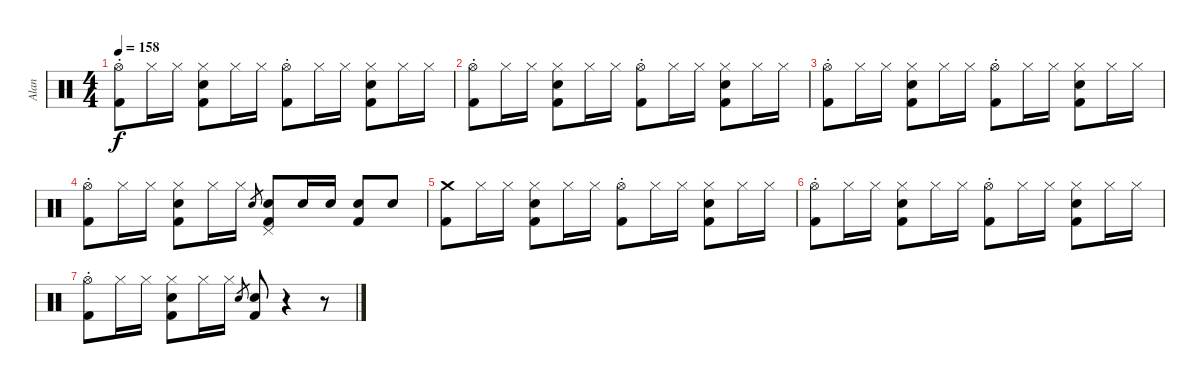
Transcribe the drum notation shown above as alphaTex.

\track ("Alan" "Alan") {instrument percussion}
\staff {score}
\articulation defaults
\ts (4 4)
\tempo 158
\clef neutral
\ks c
("Hi-Hat (open)"{st} "Kick (hit) 2").8{dy f} "Hi-Hat (closed)".16 "Hi-Hat (closed)".16 ("Hi-Hat (closed)" "Kick (hit) 2" "Snare (hit) 2").8 "Hi-Hat (closed)".16 "Hi-Hat (closed)".16 ("Hi-Hat (open)"{st} "Kick (hit) 2").8 "Hi-Hat (closed)".16 "Hi-Hat (closed)".16 ("Hi-Hat (closed)" "Kick (hit) 2" "Snare (hit) 2").8 "Hi-Hat (closed)".16 "Hi-Hat (closed)".16 |
("Hi-Hat (open)"{st} "Kick (hit) 2").8 "Hi-Hat (closed)".16 "Hi-Hat (closed)".16 ("Hi-Hat (closed)" "Kick (hit) 2" "Snare (hit) 2").8 "Hi-Hat (closed)".16 "Hi-Hat (closed)".16 ("Hi-Hat (open)"{st} "Kick (hit) 2").8 "Hi-Hat (closed)".16 "Hi-Hat (closed)".16 ("Hi-Hat (closed)" "Kick (hit) 2" "Snare (hit) 2").8 "Hi-Hat (closed)".16 "Hi-Hat (closed)".16 |
("Hi-Hat (open)"{st} "Kick (hit) 2").8 "Hi-Hat (closed)".16 "Hi-Hat (closed)".16 ("Hi-Hat (closed)" "Kick (hit) 2" "Snare (hit) 2").8 "Hi-Hat (closed)".16 "Hi-Hat (closed)".16 ("Hi-Hat (open)"{st} "Kick (hit) 2").8 "Hi-Hat (closed)".16 "Hi-Hat (closed)".16 ("Hi-Hat (closed)" "Kick (hit) 2" "Snare (hit) 2").8 "Hi-Hat (closed)".16 "Hi-Hat (closed)".16 |
("Kick (hit) 2" "Hi-Hat (open)"{st}).8 "Hi-Hat (closed)".16 "Hi-Hat (closed)".16 ("Kick (hit) 2" "Snare (hit) 2" "Hi-Hat (closed)").8 "Hi-Hat (closed)".16 "Hi-Hat (closed)".16 "Snare (hit) 2".8{gr} ("Pedal Hi-Hat (hit)" "Kick (hit) 2" "Snare (hit) 2").8 "Snare (hit) 2".16 "Snare (hit) 2".16 ("Snare (hit) 2" "Kick (hit) 2").8 "Snare (hit) 2".8 |
("Crash medium (hit)" "Kick (hit) 2").8 "Hi-Hat (closed)".16 "Hi-Hat (closed)".16 ("Hi-Hat (closed)" "Kick (hit) 2" "Snare (hit) 2").8 "Hi-Hat (closed)".16 "Hi-Hat (closed)".16 ("Hi-Hat (open)"{st} "Kick (hit) 2").8 "Hi-Hat (closed)".16 "Hi-Hat (closed)".16 ("Hi-Hat (closed)" "Kick (hit) 2" "Snare (hit) 2").8 "Hi-Hat (closed)".16 "Hi-Hat (closed)".16 |
("Hi-Hat (open)"{st} "Kick (hit) 2").8 "Hi-Hat (closed)".16 "Hi-Hat (closed)".16 ("Hi-Hat (closed)" "Kick (hit) 2" "Snare (hit) 2").8 "Hi-Hat (closed)".16 "Hi-Hat (closed)".16 ("Hi-Hat (open)"{st} "Kick (hit) 2").8 "Hi-Hat (closed)".16 "Hi-Hat (closed)".16 ("Hi-Hat (closed)" "Kick (hit) 2" "Snare (hit) 2").8 "Hi-Hat (closed)".16 "Hi-Hat (closed)".16 |
("Kick (hit) 2" "Hi-Hat (open)"{st}).8 "Hi-Hat (closed)".16 "Hi-Hat (closed)".16 ("Hi-Hat (closed)" "Kick (hit) 2" "Snare (hit) 2").8 "Hi-Hat (closed)".16 "Hi-Hat (closed)".16 "Snare (hit) 2".8{gr} ("Kick (hit) 2" "Snare (hit) 2").8 r.4 r.8
